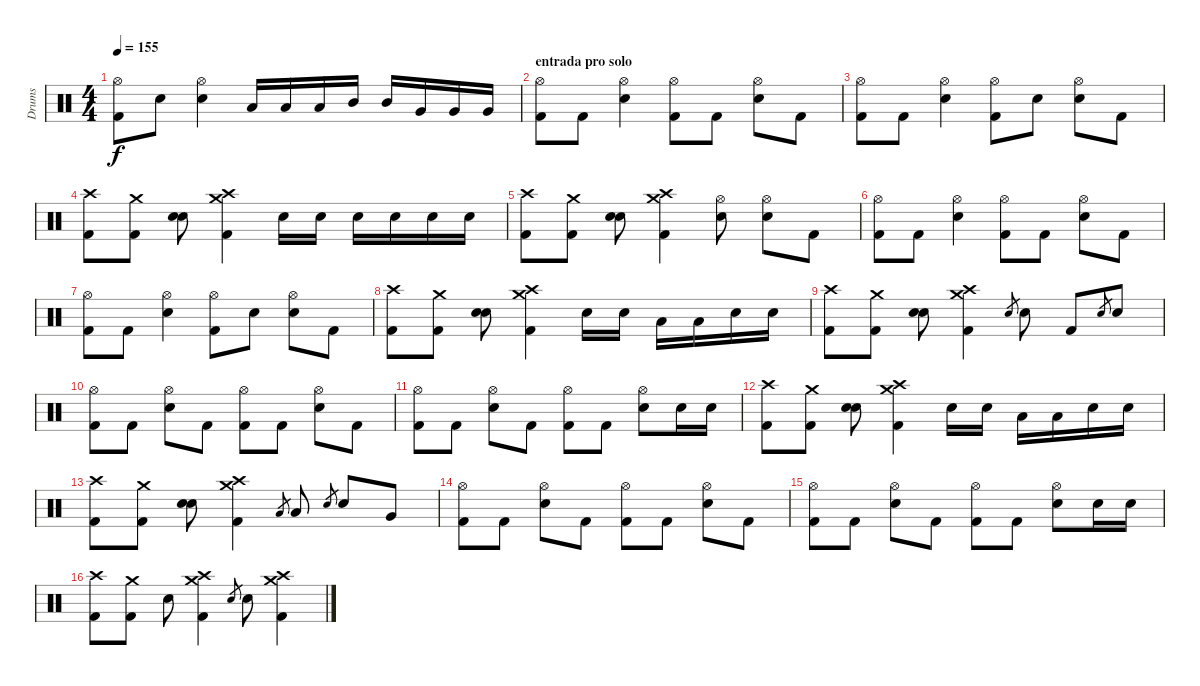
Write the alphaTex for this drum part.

\track ("Drums" "Drums") {instrument percussion}
\staff {score}
\articulation defaults
\ts (4 4)
\tempo 155
\clef neutral
\ks c
("Hi-Hat (open)" "Kick (hit) 2").8{dy f} "Electric Snare (hit)".8 ("Hi-Hat (open)" "Electric Snare (hit)").4 "Low Tom (hit)".16 "Low Tom (hit)".16 "Low Tom (hit)".16 "Mid Tom (hit)".16 "Mid Tom (hit)".16 "Very Low Tom (hit)".16 "Very Low Tom (hit)".16 "Very Low Tom (hit)".16 |
\section ("" "entrada pro solo")
("Hi-Hat (open)" "Kick (hit) 2").8 "Kick (hit) 2".8 ("Hi-Hat (open)" "Electric Snare (hit)").4 ("Hi-Hat (open)" "Kick (hit) 2").8 "Kick (hit) 2".8 ("Hi-Hat (open)" "Electric Snare (hit)").8 "Kick (hit) 2".8 |
("Hi-Hat (open)" "Kick (hit) 2").8 "Kick (hit) 2".8 ("Hi-Hat (open)" "Electric Snare (hit)").4 ("Hi-Hat (open)" "Kick (hit) 2").8 "Electric Snare (hit)".8 ("Hi-Hat (open)" "Electric Snare (hit)").8 "Kick (hit) 2".8 |
("Crash high (hit)" "Kick (hit) 2").8 ("Crash medium (hit)" "Kick (hit) 2").8 ("Electric Snare (hit)" "Electric Snare (hit)").8 ("Crash high (hit)" "Crash medium (hit)" "Kick (hit) 2").4 "Electric Snare (hit)".16 "Electric Snare (hit)".16 "Electric Snare (hit)".16 "Electric Snare (hit)".16 "Electric Snare (hit)".16 "Electric Snare (hit)".16 |
("Crash high (hit)" "Kick (hit) 2").8 ("Crash medium (hit)" "Kick (hit) 2").8 ("Electric Snare (hit)" "Electric Snare (hit)").8 ("Crash high (hit)" "Crash medium (hit)" "Kick (hit) 2").4 ("Hi-Hat (open)" "Electric Snare (hit)").8 ("Hi-Hat (open)" "Electric Snare (hit)").8 "Kick (hit) 2".8 |
("Hi-Hat (open)" "Kick (hit) 2").8 "Kick (hit) 2".8 ("Hi-Hat (open)" "Electric Snare (hit)").4 ("Hi-Hat (open)" "Kick (hit) 2").8 "Kick (hit) 2".8 ("Hi-Hat (open)" "Electric Snare (hit)").8 "Kick (hit) 2".8 |
("Hi-Hat (open)" "Kick (hit) 2").8 "Kick (hit) 2".8 ("Hi-Hat (open)" "Electric Snare (hit)").4 ("Hi-Hat (open)" "Kick (hit) 2").8 "Electric Snare (hit)".8 ("Hi-Hat (open)" "Electric Snare (hit)").8 "Kick (hit) 2".8 |
("Crash high (hit)" "Kick (hit) 2").8 ("Crash medium (hit)" "Kick (hit) 2").8 ("Electric Snare (hit)" "Electric Snare (hit)").8 ("Crash high (hit)" "Crash medium (hit)" "Kick (hit) 2").4 "Electric Snare (hit)".16 "Electric Snare (hit)".16 "Low Tom (hit)".16 "Low Tom (hit)".16 "Electric Snare (hit)".16 "Electric Snare (hit)".16 |
("Crash high (hit)" "Kick (hit) 2").8 ("Crash medium (hit)" "Kick (hit) 2").8 ("Electric Snare (hit)" "Electric Snare (hit)").8 ("Crash high (hit)" "Crash medium (hit)" "Kick (hit) 2").4 "Electric Snare (hit)".8{gr} "Electric Snare (hit)".8 "Kick (hit) 2".8 "Electric Snare (hit)".8{gr} "Electric Snare (hit)".8 |
("Hi-Hat (open)" "Kick (hit) 2").8 "Kick (hit) 2".8 ("Hi-Hat (open)" "Electric Snare (hit)").8 "Kick (hit) 2".8 ("Hi-Hat (open)" "Kick (hit) 2").8 "Kick (hit) 2".8 ("Hi-Hat (open)" "Electric Snare (hit)").8 "Kick (hit) 2".8 |
("Hi-Hat (open)" "Kick (hit) 2").8 "Kick (hit) 2".8 ("Hi-Hat (open)" "Electric Snare (hit)").8 "Kick (hit) 2".8 ("Hi-Hat (open)" "Kick (hit) 2").8 "Kick (hit) 2".8 ("Hi-Hat (open)" "Electric Snare (hit)").8 "Electric Snare (hit)".16 "Electric Snare (hit)".16 |
("Crash high (hit)" "Kick (hit) 2").8 ("Crash medium (hit)" "Kick (hit) 2").8 ("Electric Snare (hit)" "Electric Snare (hit)").8 ("Crash high (hit)" "Crash medium (hit)" "Kick (hit) 2").4 "Electric Snare (hit)".16 "Electric Snare (hit)".16 "Low Tom (hit)".16 "Low Tom (hit)".16 "Electric Snare (hit)".16 "Electric Snare (hit)".16 |
("Crash high (hit)" "Kick (hit) 2").8 ("Crash medium (hit)" "Kick (hit) 2").8 ("Electric Snare (hit)" "Electric Snare (hit)").8 ("Crash high (hit)" "Crash medium (hit)" "Kick (hit) 2").4 "Low Tom (hit)".8{gr} "Low Tom (hit)".8 "Electric Snare (hit)".8{gr} "Electric Snare (hit)".8 "Very Low Tom (hit)".8 |
("Hi-Hat (open)" "Kick (hit) 2").8 "Kick (hit) 2".8 ("Hi-Hat (open)" "Electric Snare (hit)").8 "Kick (hit) 2".8 ("Hi-Hat (open)" "Kick (hit) 2").8 "Kick (hit) 2".8 ("Hi-Hat (open)" "Electric Snare (hit)").8 "Kick (hit) 2".8 |
("Hi-Hat (open)" "Kick (hit) 2").8 "Kick (hit) 2".8 ("Hi-Hat (open)" "Electric Snare (hit)").8 "Kick (hit) 2".8 ("Hi-Hat (open)" "Kick (hit) 2").8 "Kick (hit) 2".8 ("Hi-Hat (open)" "Electric Snare (hit)").8 "Electric Snare (hit)".16 "Electric Snare (hit)".16 |
("Crash high (hit)" "Kick (hit) 2").8 ("Crash medium (hit)" "Kick (hit) 2").8 "Electric Snare (hit)".8 ("Crash high (hit)" "Crash medium (hit)" "Kick (hit) 2").4 "Electric Snare (hit)".8{gr} "Electric Snare (hit)".8 ("Crash high (hit)" "Crash medium (hit)" "Kick (hit) 2").4
